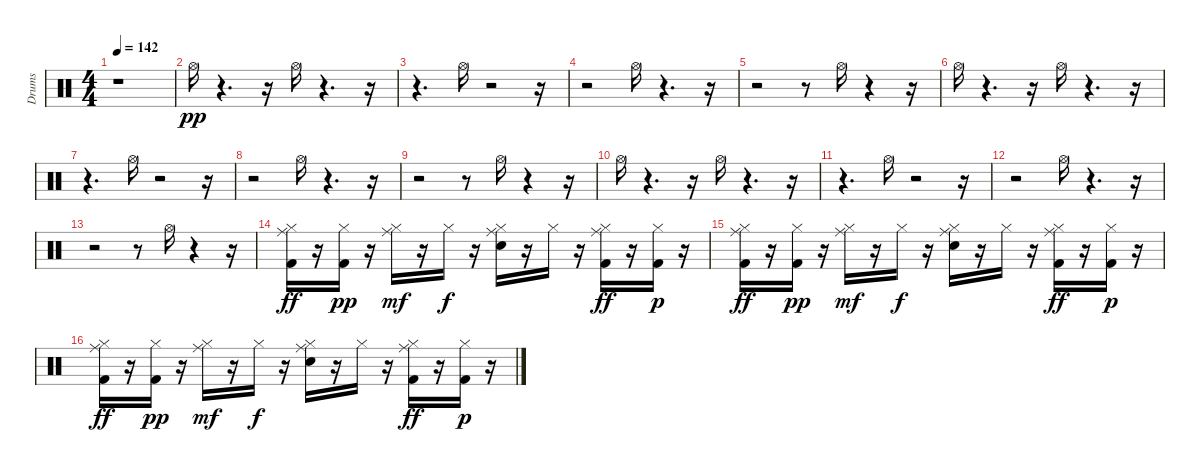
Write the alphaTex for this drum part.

\track ("Drums" "Drums") {instrument percussion}
\staff {score}
\articulation defaults
\ts (4 4)
\tempo 142
\clef neutral
\ks c
r.1{dy pp} |
"Hi-Hat (open)".16 r.4{d} r.16 "Hi-Hat (open)".16 r.4{d} r.16 |
r.4{d} "Hi-Hat (open)".16 r.2 r.16 |
r.2 "Hi-Hat (open)".16 r.4{d} r.16 |
r.2 r.8 "Hi-Hat (open)".16 r.4 r.16 |
"Hi-Hat (open)".16 r.4{d} r.16 "Hi-Hat (open)".16 r.4{d} r.16 |
r.4{d} "Hi-Hat (open)".16 r.2 r.16 |
r.2 "Hi-Hat (open)".16 r.4{d} r.16 |
r.2 r.8 "Hi-Hat (open)".16 r.4 r.16 |
"Hi-Hat (open)".16 r.4{d} r.16 "Hi-Hat (open)".16 r.4{d} r.16 |
r.4{d} "Hi-Hat (open)".16 r.2 r.16 |
r.2 "Hi-Hat (open)".16 r.4{d} r.16 |
r.2 r.8 "Hi-Hat (open)".16 r.4 r.16 |
("Ride (middle)" "Hi-Hat (closed)" "Kick (hit) 2").16{dy ff} r.16 ("Hi-Hat (closed)" "Kick (hit) 2").16{dy pp} r.16 ("Ride (middle)" "Hi-Hat (closed)").16{dy mf} r.16 "Hi-Hat (closed)".16{dy f} r.16 ("Ride (middle)" "Hi-Hat (closed)" "Snare (hit) 2").16 r.16 "Hi-Hat (closed)".16 r.16 ("Ride (middle)" "Hi-Hat (closed)" "Kick (hit) 2").16{dy ff} r.16 ("Hi-Hat (closed)" "Kick (hit) 2").16{dy p} r.16 |
("Ride (middle)" "Hi-Hat (closed)" "Kick (hit) 2").16{dy ff} r.16 ("Hi-Hat (closed)" "Kick (hit) 2").16{dy pp} r.16 ("Ride (middle)" "Hi-Hat (closed)").16{dy mf} r.16 "Hi-Hat (closed)".16{dy f} r.16 ("Ride (middle)" "Hi-Hat (closed)" "Snare (hit) 2").16 r.16 "Hi-Hat (closed)".16 r.16 ("Ride (middle)" "Hi-Hat (closed)" "Kick (hit) 2").16{dy ff} r.16 ("Hi-Hat (closed)" "Kick (hit) 2").16{dy p} r.16 |
("Ride (middle)" "Hi-Hat (closed)" "Kick (hit) 2").16{dy ff} r.16 ("Hi-Hat (closed)" "Kick (hit) 2").16{dy pp} r.16 ("Ride (middle)" "Hi-Hat (closed)").16{dy mf} r.16 "Hi-Hat (closed)".16{dy f} r.16 ("Ride (middle)" "Hi-Hat (closed)" "Snare (hit) 2").16 r.16 "Hi-Hat (closed)".16 r.16 ("Ride (middle)" "Hi-Hat (closed)" "Kick (hit) 2").16{dy ff} r.16 ("Hi-Hat (closed)" "Kick (hit) 2").16{dy p} r.16
